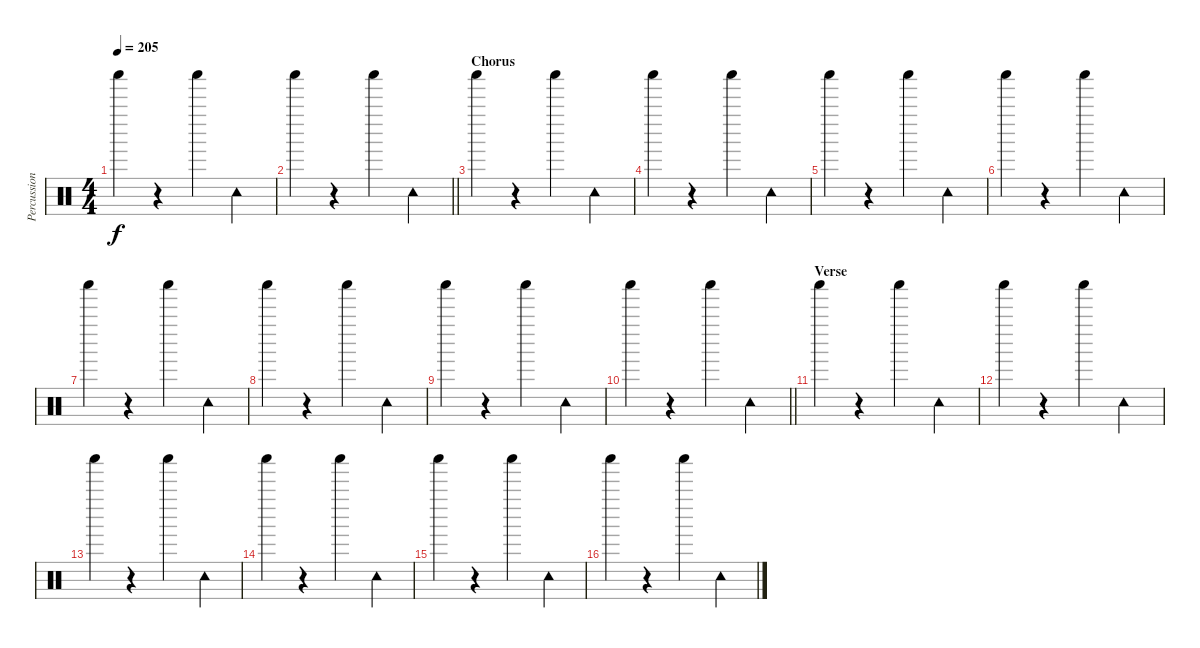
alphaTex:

\track ("Percussion" "Percussion") {instrument percussion}
\staff {score}
\articulation defaults
\ts (4 4)
\tempo 205
\clef neutral
\ks c "Shaker (hit)".4{dy f}
r.4 "Shaker (hit)".4 "Tambourine (hit)".4 |
\barLineRight lightlight "Shaker (hit)".4
r.4 "Shaker (hit)".4 "Tambourine (hit)".4 |
\section ("" "Chorus")
"Shaker (hit)".4 r.4 "Shaker (hit)".4 "Tambourine (hit)".4 |
"Shaker (hit)".4 r.4 "Shaker (hit)".4 "Tambourine (hit)".4 |
"Shaker (hit)".4 r.4 "Shaker (hit)".4 "Tambourine (hit)".4 |
"Shaker (hit)".4 r.4 "Shaker (hit)".4 "Tambourine (hit)".4 |
"Shaker (hit)".4 r.4 "Shaker (hit)".4 "Tambourine (hit)".4 |
"Shaker (hit)".4 r.4 "Shaker (hit)".4 "Tambourine (hit)".4 |
"Shaker (hit)".4 r.4 "Shaker (hit)".4 "Tambourine (hit)".4 |
\barLineRight lightlight "Shaker (hit)".4
r.4 "Shaker (hit)".4 "Tambourine (hit)".4 |
\section ("" "Verse")
"Shaker (hit)".4 r.4 "Shaker (hit)".4 "Tambourine (hit)".4 |
"Shaker (hit)".4 r.4 "Shaker (hit)".4 "Tambourine (hit)".4 |
"Shaker (hit)".4 r.4 "Shaker (hit)".4 "Tambourine (hit)".4 |
"Shaker (hit)".4 r.4 "Shaker (hit)".4 "Tambourine (hit)".4 |
"Shaker (hit)".4 r.4 "Shaker (hit)".4 "Tambourine (hit)".4 |
"Shaker (hit)".4 r.4 "Shaker (hit)".4 "Tambourine (hit)".4
